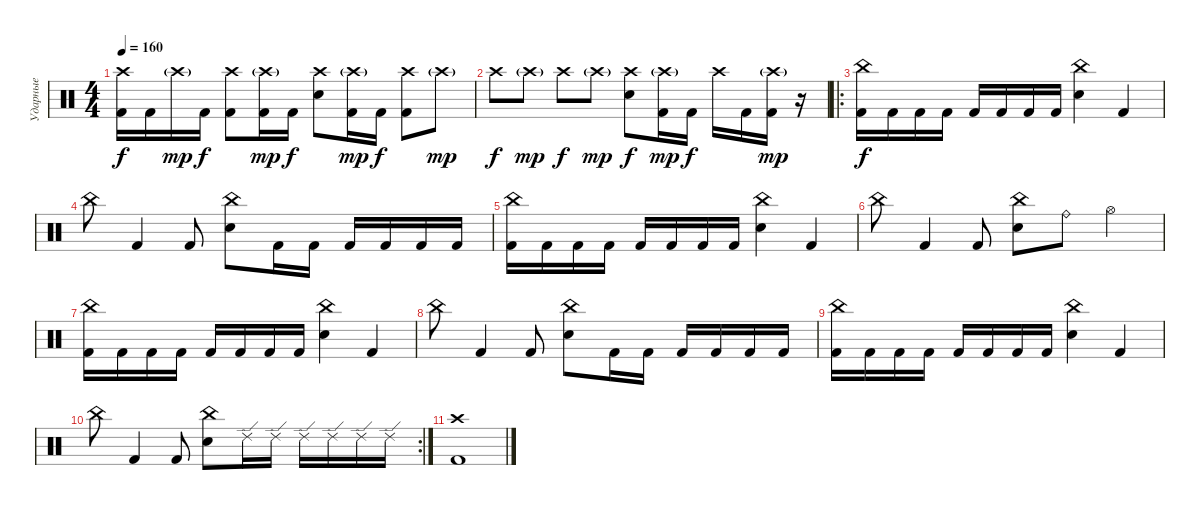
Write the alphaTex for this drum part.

\track ("Ударные" "Ударные") {instrument percussion}
\staff {score}
\articulation defaults
\ts (4 4)
\tempo 160
\clef neutral
\ks c
("Crash high (hit)" "Kick (hit) 2").16{dy f} "Kick (hit) 2".16 "Crash high (hit)"{g}.16{dy mp} "Kick (hit) 2".16{dy f} ("Crash high (hit)" "Kick (hit) 2").8 ("Crash high (hit)"{g} "Kick (hit) 2").16{dy mp} "Kick (hit) 2".16{dy f} ("Crash high (hit)" "Snare (hit) 2").8 ("Crash high (hit)"{g} "Kick (hit) 2").16{dy mp} "Kick (hit) 2".16{dy f} ("Crash high (hit)" "Kick (hit) 2").8 "Crash high (hit)"{g}.8{dy mp} |
"Crash high (hit)".8{dy f} "Crash high (hit)"{g}.8{dy mp} "Crash high (hit)".8{dy f} "Crash high (hit)"{g}.8{dy mp} ("Crash high (hit)" "Snare (hit) 2").8{dy f} ("Crash high (hit)"{g} "Kick (hit) 2").16{dy mp} "Kick (hit) 2".16{dy f} "Crash high (hit)".16 "Kick (hit) 2".16 ("Crash high (hit)"{g} "Kick (hit) 2").16{dy mp} r.16 |
\ro
("China (hit)" "Kick (hit) 2").16{dy f} "Kick (hit) 2".16 "Kick (hit) 2".16 "Kick (hit) 2".16 "Kick (hit) 2".16 "Kick (hit) 2".16 "Kick (hit) 2".16 "Kick (hit) 2".16 ("China (hit)" "Snare (hit) 2").4 "Kick (hit) 2".4 |
"China (hit)".8 "Kick (hit) 2".4 "Kick (hit) 2".8 ("China (hit)" "Snare (hit) 2").8 "Kick (hit) 2".16 "Kick (hit) 2".16 "Kick (hit) 2".16 "Kick (hit) 2".16 "Kick (hit) 2".16 "Kick (hit) 2".16 |
("China (hit)" "Kick (hit) 2").16 "Kick (hit) 2".16 "Kick (hit) 2".16 "Kick (hit) 2".16 "Kick (hit) 2".16 "Kick (hit) 2".16 "Kick (hit) 2".16 "Kick (hit) 2".16 ("China (hit)" "Snare (hit) 2").4 "Kick (hit) 2".4 |
"China (hit)".8 "Kick (hit) 2".4 "Kick (hit) 2".8 ("China (hit)" "Snare (hit) 2").8 "Ride (bell)".8 "Hi-Hat (open)".4 |
("China (hit)" "Kick (hit) 2").16 "Kick (hit) 2".16 "Kick (hit) 2".16 "Kick (hit) 2".16 "Kick (hit) 2".16 "Kick (hit) 2".16 "Kick (hit) 2".16 "Kick (hit) 2".16 ("China (hit)" "Snare (hit) 2").4 "Kick (hit) 2".4 |
"China (hit)".8 "Kick (hit) 2".4 "Kick (hit) 2".8 ("China (hit)" "Snare (hit) 2").8 "Kick (hit) 2".16 "Kick (hit) 2".16 "Kick (hit) 2".16 "Kick (hit) 2".16 "Kick (hit) 2".16 "Kick (hit) 2".16 |
("China (hit)" "Kick (hit) 2").16 "Kick (hit) 2".16 "Kick (hit) 2".16 "Kick (hit) 2".16 "Kick (hit) 2".16 "Kick (hit) 2".16 "Kick (hit) 2".16 "Kick (hit) 2".16 ("China (hit)" "Snare (hit) 2").4 "Kick (hit) 2".4 |
\rc 2 "China (hit)".8 "Kick (hit) 2".4 "Kick (hit) 2".8
("China (hit)" "Snare (hit) 2").8 "Ride (edge) 2".16 "Ride (edge) 2".16 "Ride (edge) 2".16 "Ride (edge) 2".16 "Ride (edge) 2".16 "Ride (edge) 2".16 |
("Crash high (hit)" "Kick (hit) 2").1
